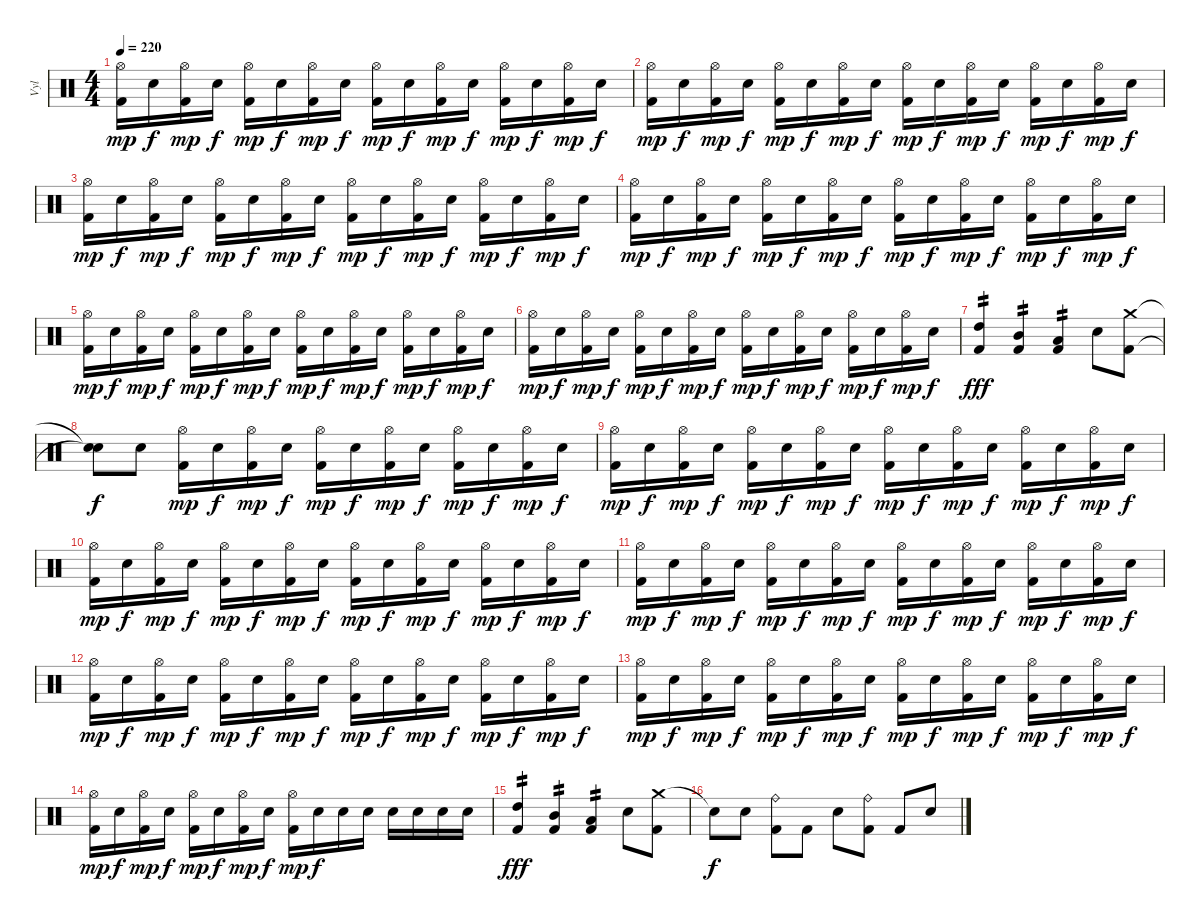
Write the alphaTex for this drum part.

\track ("Vyl" "Vyl") {instrument percussion}
\staff {score}
\articulation defaults
\ts (4 4)
\tempo 220
\clef neutral
\ks c
("Hi-Hat (open)" "Kick (hit) 2").16{dy mp} "Snare (hit) 2".16{dy f} ("Hi-Hat (open)" "Kick (hit) 2").16{dy mp} "Snare (hit) 2".16{dy f} ("Hi-Hat (open)" "Kick (hit) 2").16{dy mp} "Snare (hit) 2".16{dy f} ("Hi-Hat (open)" "Kick (hit) 2").16{dy mp} "Snare (hit) 2".16{dy f} ("Hi-Hat (open)" "Kick (hit) 2").16{dy mp} "Snare (hit) 2".16{dy f} ("Hi-Hat (open)" "Kick (hit) 2").16{dy mp} "Snare (hit) 2".16{dy f} ("Hi-Hat (open)" "Kick (hit) 2").16{dy mp} "Snare (hit) 2".16{dy f} ("Hi-Hat (open)" "Kick (hit) 2").16{dy mp} "Snare (hit) 2".16{dy f} |
("Hi-Hat (open)" "Kick (hit) 2").16{dy mp} "Snare (hit) 2".16{dy f} ("Hi-Hat (open)" "Kick (hit) 2").16{dy mp} "Snare (hit) 2".16{dy f} ("Hi-Hat (open)" "Kick (hit) 2").16{dy mp} "Snare (hit) 2".16{dy f} ("Hi-Hat (open)" "Kick (hit) 2").16{dy mp} "Snare (hit) 2".16{dy f} ("Hi-Hat (open)" "Kick (hit) 2").16{dy mp} "Snare (hit) 2".16{dy f} ("Hi-Hat (open)" "Kick (hit) 2").16{dy mp} "Snare (hit) 2".16{dy f} ("Hi-Hat (open)" "Kick (hit) 2").16{dy mp} "Snare (hit) 2".16{dy f} ("Hi-Hat (open)" "Kick (hit) 2").16{dy mp} "Snare (hit) 2".16{dy f} |
("Hi-Hat (open)" "Kick (hit) 2").16{dy mp} "Snare (hit) 2".16{dy f} ("Hi-Hat (open)" "Kick (hit) 2").16{dy mp} "Snare (hit) 2".16{dy f} ("Hi-Hat (open)" "Kick (hit) 2").16{dy mp} "Snare (hit) 2".16{dy f} ("Hi-Hat (open)" "Kick (hit) 2").16{dy mp} "Snare (hit) 2".16{dy f} ("Hi-Hat (open)" "Kick (hit) 2").16{dy mp} "Snare (hit) 2".16{dy f} ("Hi-Hat (open)" "Kick (hit) 2").16{dy mp} "Snare (hit) 2".16{dy f} ("Hi-Hat (open)" "Kick (hit) 2").16{dy mp} "Snare (hit) 2".16{dy f} ("Hi-Hat (open)" "Kick (hit) 2").16{dy mp} "Snare (hit) 2".16{dy f} |
("Hi-Hat (open)" "Kick (hit) 2").16{dy mp} "Snare (hit) 2".16{dy f} ("Hi-Hat (open)" "Kick (hit) 2").16{dy mp} "Snare (hit) 2".16{dy f} ("Hi-Hat (open)" "Kick (hit) 2").16{dy mp} "Snare (hit) 2".16{dy f} ("Hi-Hat (open)" "Kick (hit) 2").16{dy mp} "Snare (hit) 2".16{dy f} ("Hi-Hat (open)" "Kick (hit) 2").16{dy mp} "Snare (hit) 2".16{dy f} ("Hi-Hat (open)" "Kick (hit) 2").16{dy mp} "Snare (hit) 2".16{dy f} ("Hi-Hat (open)" "Kick (hit) 2").16{dy mp} "Snare (hit) 2".16{dy f} ("Hi-Hat (open)" "Kick (hit) 2").16{dy mp} "Snare (hit) 2".16{dy f} |
("Hi-Hat (open)" "Kick (hit) 2").16{dy mp} "Snare (hit) 2".16{dy f} ("Hi-Hat (open)" "Kick (hit) 2").16{dy mp} "Snare (hit) 2".16{dy f} ("Hi-Hat (open)" "Kick (hit) 2").16{dy mp} "Snare (hit) 2".16{dy f} ("Hi-Hat (open)" "Kick (hit) 2").16{dy mp} "Snare (hit) 2".16{dy f} ("Hi-Hat (open)" "Kick (hit) 2").16{dy mp} "Snare (hit) 2".16{dy f} ("Hi-Hat (open)" "Kick (hit) 2").16{dy mp} "Snare (hit) 2".16{dy f} ("Hi-Hat (open)" "Kick (hit) 2").16{dy mp} "Snare (hit) 2".16{dy f} ("Hi-Hat (open)" "Kick (hit) 2").16{dy mp} "Snare (hit) 2".16{dy f} |
("Hi-Hat (open)" "Kick (hit) 2").16{dy mp} "Snare (hit) 2".16{dy f} ("Hi-Hat (open)" "Kick (hit) 2").16{dy mp} "Snare (hit) 2".16{dy f} ("Hi-Hat (open)" "Kick (hit) 2").16{dy mp} "Snare (hit) 2".16{dy f} ("Hi-Hat (open)" "Kick (hit) 2").16{dy mp} "Snare (hit) 2".16{dy f} ("Hi-Hat (open)" "Kick (hit) 2").16{dy mp} "Snare (hit) 2".16{dy f} ("Hi-Hat (open)" "Kick (hit) 2").16{dy mp} "Snare (hit) 2".16{dy f} ("Hi-Hat (open)" "Kick (hit) 2").16{dy mp} "Snare (hit) 2".16{dy f} ("Hi-Hat (open)" "Kick (hit) 2").16{dy mp} "Snare (hit) 2".16{dy f} |
("Kick (hit) 2" "High Tom (hit)").4{tp 2 dy fff} ("Kick (hit) 2" "Mid Tom (hit)").4{tp 2} ("Kick (hit) 2" "Low Tom (hit)").4{tp 2} "Snare (hit) 2".8 ("Crash medium (hit)" "Kick (hit) 2").8 |
("Snare (hit)"{t} "Snare (hit)"{t}).8{dy f} "Snare (hit) 2".8 ("Hi-Hat (open)" "Kick (hit) 2").16{dy mp} "Snare (hit) 2".16{dy f} ("Hi-Hat (open)" "Kick (hit) 2").16{dy mp} "Snare (hit) 2".16{dy f} ("Hi-Hat (open)" "Kick (hit) 2").16{dy mp} "Snare (hit) 2".16{dy f} ("Hi-Hat (open)" "Kick (hit) 2").16{dy mp} "Snare (hit) 2".16{dy f} ("Hi-Hat (open)" "Kick (hit) 2").16{dy mp} "Snare (hit) 2".16{dy f} ("Hi-Hat (open)" "Kick (hit) 2").16{dy mp} "Snare (hit) 2".16{dy f} |
("Hi-Hat (open)" "Kick (hit) 2").16{dy mp} "Snare (hit) 2".16{dy f} ("Hi-Hat (open)" "Kick (hit) 2").16{dy mp} "Snare (hit) 2".16{dy f} ("Hi-Hat (open)" "Kick (hit) 2").16{dy mp} "Snare (hit) 2".16{dy f} ("Hi-Hat (open)" "Kick (hit) 2").16{dy mp} "Snare (hit) 2".16{dy f} ("Hi-Hat (open)" "Kick (hit) 2").16{dy mp} "Snare (hit) 2".16{dy f} ("Hi-Hat (open)" "Kick (hit) 2").16{dy mp} "Snare (hit) 2".16{dy f} ("Hi-Hat (open)" "Kick (hit) 2").16{dy mp} "Snare (hit) 2".16{dy f} ("Hi-Hat (open)" "Kick (hit) 2").16{dy mp} "Snare (hit) 2".16{dy f} |
("Hi-Hat (open)" "Kick (hit) 2").16{dy mp} "Snare (hit) 2".16{dy f} ("Hi-Hat (open)" "Kick (hit) 2").16{dy mp} "Snare (hit) 2".16{dy f} ("Hi-Hat (open)" "Kick (hit) 2").16{dy mp} "Snare (hit) 2".16{dy f} ("Hi-Hat (open)" "Kick (hit) 2").16{dy mp} "Snare (hit) 2".16{dy f} ("Hi-Hat (open)" "Kick (hit) 2").16{dy mp} "Snare (hit) 2".16{dy f} ("Hi-Hat (open)" "Kick (hit) 2").16{dy mp} "Snare (hit) 2".16{dy f} ("Hi-Hat (open)" "Kick (hit) 2").16{dy mp} "Snare (hit) 2".16{dy f} ("Hi-Hat (open)" "Kick (hit) 2").16{dy mp} "Snare (hit) 2".16{dy f} |
("Hi-Hat (open)" "Kick (hit) 2").16{dy mp} "Snare (hit) 2".16{dy f} ("Hi-Hat (open)" "Kick (hit) 2").16{dy mp} "Snare (hit) 2".16{dy f} ("Hi-Hat (open)" "Kick (hit) 2").16{dy mp} "Snare (hit) 2".16{dy f} ("Hi-Hat (open)" "Kick (hit) 2").16{dy mp} "Snare (hit) 2".16{dy f} ("Hi-Hat (open)" "Kick (hit) 2").16{dy mp} "Snare (hit) 2".16{dy f} ("Hi-Hat (open)" "Kick (hit) 2").16{dy mp} "Snare (hit) 2".16{dy f} ("Hi-Hat (open)" "Kick (hit) 2").16{dy mp} "Snare (hit) 2".16{dy f} ("Hi-Hat (open)" "Kick (hit) 2").16{dy mp} "Snare (hit) 2".16{dy f} |
("Hi-Hat (open)" "Kick (hit) 2").16{dy mp} "Snare (hit) 2".16{dy f} ("Hi-Hat (open)" "Kick (hit) 2").16{dy mp} "Snare (hit) 2".16{dy f} ("Hi-Hat (open)" "Kick (hit) 2").16{dy mp} "Snare (hit) 2".16{dy f} ("Hi-Hat (open)" "Kick (hit) 2").16{dy mp} "Snare (hit) 2".16{dy f} ("Hi-Hat (open)" "Kick (hit) 2").16{dy mp} "Snare (hit) 2".16{dy f} ("Hi-Hat (open)" "Kick (hit) 2").16{dy mp} "Snare (hit) 2".16{dy f} ("Hi-Hat (open)" "Kick (hit) 2").16{dy mp} "Snare (hit) 2".16{dy f} ("Hi-Hat (open)" "Kick (hit) 2").16{dy mp} "Snare (hit) 2".16{dy f} |
("Hi-Hat (open)" "Kick (hit) 2").16{dy mp} "Snare (hit) 2".16{dy f} ("Hi-Hat (open)" "Kick (hit) 2").16{dy mp} "Snare (hit) 2".16{dy f} ("Hi-Hat (open)" "Kick (hit) 2").16{dy mp} "Snare (hit) 2".16{dy f} ("Hi-Hat (open)" "Kick (hit) 2").16{dy mp} "Snare (hit) 2".16{dy f} ("Hi-Hat (open)" "Kick (hit) 2").16{dy mp} "Snare (hit) 2".16{dy f} ("Hi-Hat (open)" "Kick (hit) 2").16{dy mp} "Snare (hit) 2".16{dy f} ("Hi-Hat (open)" "Kick (hit) 2").16{dy mp} "Snare (hit) 2".16{dy f} ("Hi-Hat (open)" "Kick (hit) 2").16{dy mp} "Snare (hit) 2".16{dy f} |
("Hi-Hat (open)" "Kick (hit) 2").16{dy mp} "Snare (hit) 2".16{dy f} ("Hi-Hat (open)" "Kick (hit) 2").16{dy mp} "Snare (hit) 2".16{dy f} ("Hi-Hat (open)" "Kick (hit) 2").16{dy mp} "Snare (hit) 2".16{dy f} ("Hi-Hat (open)" "Kick (hit) 2").16{dy mp} "Snare (hit) 2".16{dy f} ("Hi-Hat (open)" "Kick (hit) 2").16{dy mp} "Snare (hit) 2".16{dy f} "Snare (hit) 2".16 "Snare (hit) 2".16 "Snare (hit) 2".16 "Snare (hit) 2".16 "Snare (hit) 2".16 "Snare (hit) 2".16 |
("Kick (hit) 2" "High Tom (hit)").4{tp 2 dy fff} ("Kick (hit) 2" "Mid Tom (hit)").4{tp 2} ("Kick (hit) 2" "Low Tom (hit)").4{tp 2} "Snare (hit) 2".8 ("Crash medium (hit)" "Kick (hit) 2").8 |
"Snare (hit)"{t}.8{dy f} "Snare (hit) 2".8 ("Ride (bell)" "Kick (hit) 2").8 "Kick (hit) 2".8 "Snare (hit) 2".8 ("Ride (bell)" "Kick (hit) 2").8 "Kick (hit) 2".8 "Snare (hit) 2".8
